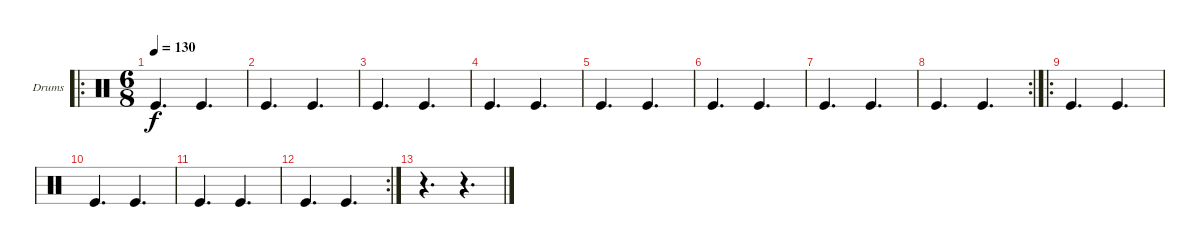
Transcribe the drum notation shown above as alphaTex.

\bracketExtendMode groupsimilarinstruments
\firstSystemTrackNameOrientation horizontal
\otherSystemsTrackNameOrientation horizontal
\track ("Drumkit" "Drums") {instrument percussion}
\staff {score}
\articulation defaults
\ro
\ts (6 8)
\tempo 130
\clef neutral
\ks c "Kick (hit)".4{d dy f} "Kick (hit)".4{d}
|
"Kick (hit)".4{d} "Kick (hit)".4{d} |
"Kick (hit)".4{d} "Kick (hit)".4{d} |
"Kick (hit)".4{d} "Kick (hit)".4{d} |
"Kick (hit)".4{d} "Kick (hit)".4{d} |
"Kick (hit)".4{d} "Kick (hit)".4{d} |
"Kick (hit)".4{d} "Kick (hit)".4{d} |
\rc 2 "Kick (hit)".4{d} "Kick (hit)".4{d}
|
\ro "Kick (hit)".4{d} "Kick (hit)".4{d}
|
"Kick (hit)".4{d} "Kick (hit)".4{d} |
"Kick (hit)".4{d} "Kick (hit)".4{d} |
\rc 2 "Kick (hit)".4{d} "Kick (hit)".4{d}
|
r.4{d} r.4{d}
